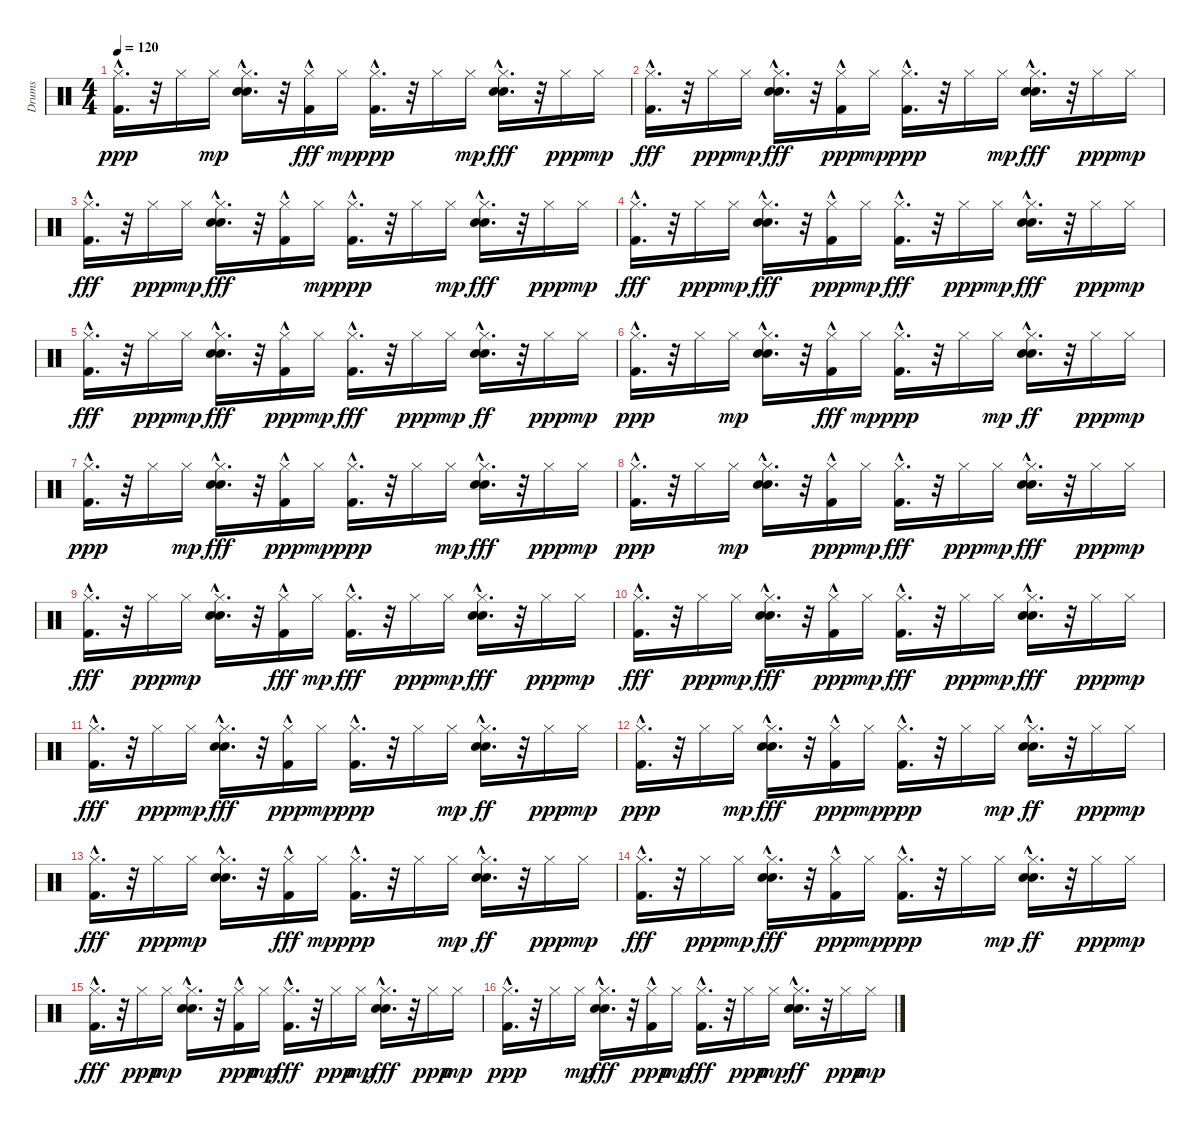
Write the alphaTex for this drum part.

\track ("Drums" "Drums") {instrument percussion}
\staff {score}
\articulation defaults
\ts (4 4)
\tempo 120
\clef neutral
\ks c
("Kick (hit) 2"{hac} "Hi-Hat (closed)"{hac}).16{d dy ppp} r.32 "Hi-Hat (closed)".16 "Hi-Hat (closed)".16{dy mp} ("Hand Clap (hit)"{hac} "Snare (hit) 2"{hac} "Hi-Hat (closed)"{hac}).16{d} r.32 ("Hi-Hat (closed)" "Kick (hit) 2"{hac}).16{dy fff} "Hi-Hat (closed)".16{dy mp} ("Kick (hit) 2"{hac} "Hi-Hat (closed)"{hac}).16{d dy ppp} r.32 "Hi-Hat (closed)".16 "Hi-Hat (closed)".16{dy mp} ("Hi-Hat (closed)"{hac} "Hand Clap (hit)"{hac} "Snare (hit) 2"{hac}).16{d dy fff} r.32 "Hi-Hat (closed)".16{dy ppp} "Hi-Hat (closed)".16{dy mp} |
("Hi-Hat (closed)"{hac} "Kick (hit) 2"{hac}).16{d dy fff} r.32 "Hi-Hat (closed)".16{dy ppp} "Hi-Hat (closed)".16{dy mp} ("Hi-Hat (closed)"{hac} "Snare (hit) 2"{hac} "Hand Clap (hit)"{hac}).16{d dy fff} r.32 ("Kick (hit) 2"{hac} "Hi-Hat (closed)").16{dy ppp} "Hi-Hat (closed)".16{dy mp} ("Kick (hit) 2"{hac} "Hi-Hat (closed)"{hac}).16{d dy ppp} r.32 "Hi-Hat (closed)".16 "Hi-Hat (closed)".16{dy mp} ("Snare (hit) 2"{hac} "Hi-Hat (closed)"{hac} "Hand Clap (hit)"{hac}).16{d dy fff} r.32 "Hi-Hat (closed)".16{dy ppp} "Hi-Hat (closed)".16{dy mp} |
("Hi-Hat (closed)"{hac} "Kick (hit) 2"{hac}).16{d dy fff} r.32 "Hi-Hat (closed)".16{dy ppp} "Hi-Hat (closed)".16{dy mp} ("Hand Clap (hit)"{hac} "Hi-Hat (closed)"{hac} "Snare (hit) 2"{hac}).16{d dy fff} r.32 ("Hi-Hat (closed)" "Kick (hit) 2"{hac}).16 "Hi-Hat (closed)".16{dy mp} ("Kick (hit) 2"{hac} "Hi-Hat (closed)"{hac}).16{d dy ppp} r.32 "Hi-Hat (closed)".16 "Hi-Hat (closed)".16{dy mp} ("Hi-Hat (closed)"{hac} "Hand Clap (hit)"{hac} "Snare (hit) 2"{hac}).16{d dy fff} r.32 "Hi-Hat (closed)".16{dy ppp} "Hi-Hat (closed)".16{dy mp} |
("Hi-Hat (closed)"{hac} "Kick (hit) 2"{hac}).16{d dy fff} r.32 "Hi-Hat (closed)".16{dy ppp} "Hi-Hat (closed)".16{dy mp} ("Hi-Hat (closed)"{hac} "Snare (hit) 2"{hac} "Hand Clap (hit)"{hac}).16{d dy fff} r.32 ("Kick (hit) 2"{hac} "Hi-Hat (closed)").16{dy ppp} "Hi-Hat (closed)".16{dy mp} ("Hi-Hat (closed)"{hac} "Kick (hit) 2"{hac}).16{d dy fff} r.32 "Hi-Hat (closed)".16{dy ppp} "Hi-Hat (closed)".16{dy mp} ("Hi-Hat (closed)"{hac} "Snare (hit) 2"{hac} "Hand Clap (hit)"{hac}).16{d dy fff} r.32 "Hi-Hat (closed)".16{dy ppp} "Hi-Hat (closed)".16{dy mp} |
("Hi-Hat (closed)"{hac} "Kick (hit) 2"{hac}).16{d dy fff} r.32 "Hi-Hat (closed)".16{dy ppp} "Hi-Hat (closed)".16{dy mp} ("Hand Clap (hit)"{hac} "Hi-Hat (closed)"{hac} "Snare (hit) 2"{hac}).16{d dy fff} r.32 ("Kick (hit) 2"{hac} "Hi-Hat (closed)").16{dy ppp} "Hi-Hat (closed)".16{dy mp} ("Hi-Hat (closed)"{hac} "Kick (hit) 2"{hac}).16{d dy fff} r.32 "Hi-Hat (closed)".16{dy ppp} "Hi-Hat (closed)".16{dy mp} ("Snare (hit) 2"{hac} "Hand Clap (hit)"{hac} "Hi-Hat (closed)"{hac}).16{d dy ff} r.32 "Hi-Hat (closed)".16{dy ppp} "Hi-Hat (closed)".16{dy mp} |
("Kick (hit) 2"{hac} "Hi-Hat (closed)"{hac}).16{d dy ppp} r.32 "Hi-Hat (closed)".16 "Hi-Hat (closed)".16{dy mp} ("Snare (hit) 2"{hac} "Hand Clap (hit)"{hac} "Hi-Hat (closed)"{hac}).16{d} r.32 ("Hi-Hat (closed)" "Kick (hit) 2"{hac}).16{dy fff} "Hi-Hat (closed)".16{dy mp} ("Kick (hit) 2"{hac} "Hi-Hat (closed)"{hac}).16{d dy ppp} r.32 "Hi-Hat (closed)".16 "Hi-Hat (closed)".16{dy mp} ("Snare (hit) 2"{hac} "Hand Clap (hit)"{hac} "Hi-Hat (closed)"{hac}).16{d dy ff} r.32 "Hi-Hat (closed)".16{dy ppp} "Hi-Hat (closed)".16{dy mp} |
("Kick (hit) 2"{hac} "Hi-Hat (closed)"{hac}).16{d dy ppp} r.32 "Hi-Hat (closed)".16 "Hi-Hat (closed)".16{dy mp} ("Hand Clap (hit)"{hac} "Hi-Hat (closed)"{hac} "Snare (hit) 2"{hac}).16{d dy fff} r.32 ("Kick (hit) 2"{hac} "Hi-Hat (closed)").16{dy ppp} "Hi-Hat (closed)".16{dy mp} ("Kick (hit) 2"{hac} "Hi-Hat (closed)"{hac}).16{d dy ppp} r.32 "Hi-Hat (closed)".16 "Hi-Hat (closed)".16{dy mp} ("Hi-Hat (closed)"{hac} "Hand Clap (hit)"{hac} "Snare (hit) 2"{hac}).16{d dy fff} r.32 "Hi-Hat (closed)".16{dy ppp} "Hi-Hat (closed)".16{dy mp} |
("Kick (hit) 2"{hac} "Hi-Hat (closed)"{hac}).16{d dy ppp} r.32 "Hi-Hat (closed)".16 "Hi-Hat (closed)".16{dy mp} ("Hand Clap (hit)"{hac} "Snare (hit) 2"{hac} "Hi-Hat (closed)"{hac}).16{d} r.32 ("Kick (hit) 2"{hac} "Hi-Hat (closed)").16{dy ppp} "Hi-Hat (closed)".16{dy mp} ("Hi-Hat (closed)"{hac} "Kick (hit) 2"{hac}).16{d dy fff} r.32 "Hi-Hat (closed)".16{dy ppp} "Hi-Hat (closed)".16{dy mp} ("Hand Clap (hit)"{hac} "Hi-Hat (closed)"{hac} "Snare (hit) 2"{hac}).16{d dy fff} r.32 "Hi-Hat (closed)".16{dy ppp} "Hi-Hat (closed)".16{dy mp} |
("Hi-Hat (closed)"{hac} "Kick (hit) 2"{hac}).16{d dy fff} r.32 "Hi-Hat (closed)".16{dy ppp} "Hi-Hat (closed)".16{dy mp} ("Hand Clap (hit)"{hac} "Snare (hit) 2"{hac} "Hi-Hat (closed)"{hac}).16{d} r.32 ("Hi-Hat (closed)" "Kick (hit) 2"{hac}).16{dy fff} "Hi-Hat (closed)".16{dy mp} ("Hi-Hat (closed)"{hac} "Kick (hit) 2"{hac}).16{d dy fff} r.32 "Hi-Hat (closed)".16{dy ppp} "Hi-Hat (closed)".16{dy mp} ("Snare (hit) 2"{hac} "Hi-Hat (closed)"{hac} "Hand Clap (hit)"{hac}).16{d dy fff} r.32 "Hi-Hat (closed)".16{dy ppp} "Hi-Hat (closed)".16{dy mp} |
("Hi-Hat (closed)"{hac} "Kick (hit) 2"{hac}).16{d dy fff} r.32 "Hi-Hat (closed)".16{dy ppp} "Hi-Hat (closed)".16{dy mp} ("Snare (hit) 2"{hac} "Hi-Hat (closed)"{hac} "Hand Clap (hit)"{hac}).16{d dy fff} r.32 ("Kick (hit) 2"{hac} "Hi-Hat (closed)").16{dy ppp} "Hi-Hat (closed)".16{dy mp} ("Hi-Hat (closed)"{hac} "Kick (hit) 2"{hac}).16{d dy fff} r.32 "Hi-Hat (closed)".16{dy ppp} "Hi-Hat (closed)".16{dy mp} ("Hi-Hat (closed)"{hac} "Hand Clap (hit)"{hac} "Snare (hit) 2"{hac}).16{d dy fff} r.32 "Hi-Hat (closed)".16{dy ppp} "Hi-Hat (closed)".16{dy mp} |
("Hi-Hat (closed)"{hac} "Kick (hit) 2"{hac}).16{d dy fff} r.32 "Hi-Hat (closed)".16{dy ppp} "Hi-Hat (closed)".16{dy mp} ("Snare (hit) 2"{hac} "Hi-Hat (closed)"{hac} "Hand Clap (hit)"{hac}).16{d dy fff} r.32 ("Kick (hit) 2"{hac} "Hi-Hat (closed)").16{dy ppp} "Hi-Hat (closed)".16{dy mp} ("Kick (hit) 2"{hac} "Hi-Hat (closed)"{hac}).16{d dy ppp} r.32 "Hi-Hat (closed)".16 "Hi-Hat (closed)".16{dy mp} ("Hand Clap (hit)"{hac} "Snare (hit) 2"{hac} "Hi-Hat (closed)"{hac}).16{d dy ff} r.32 "Hi-Hat (closed)".16{dy ppp} "Hi-Hat (closed)".16{dy mp} |
("Kick (hit) 2"{hac} "Hi-Hat (closed)"{hac}).16{d dy ppp} r.32 "Hi-Hat (closed)".16 "Hi-Hat (closed)".16{dy mp} ("Hi-Hat (closed)"{hac} "Hand Clap (hit)"{hac} "Snare (hit) 2"{hac}).16{d dy fff} r.32 ("Kick (hit) 2"{hac} "Hi-Hat (closed)").16{dy ppp} "Hi-Hat (closed)".16{dy mp} ("Kick (hit) 2"{hac} "Hi-Hat (closed)"{hac}).16{d dy ppp} r.32 "Hi-Hat (closed)".16 "Hi-Hat (closed)".16{dy mp} ("Hand Clap (hit)"{hac} "Snare (hit) 2"{hac} "Hi-Hat (closed)"{hac}).16{d dy ff} r.32 "Hi-Hat (closed)".16{dy ppp} "Hi-Hat (closed)".16{dy mp} |
("Hi-Hat (closed)"{hac} "Kick (hit) 2"{hac}).16{d dy fff} r.32 "Hi-Hat (closed)".16{dy ppp} "Hi-Hat (closed)".16{dy mp} ("Hand Clap (hit)"{hac} "Snare (hit) 2"{hac} "Hi-Hat (closed)"{hac}).16{d} r.32 ("Hi-Hat (closed)" "Kick (hit) 2"{hac}).16{dy fff} "Hi-Hat (closed)".16{dy mp} ("Kick (hit) 2"{hac} "Hi-Hat (closed)"{hac}).16{d dy ppp} r.32 "Hi-Hat (closed)".16 "Hi-Hat (closed)".16{dy mp} ("Hand Clap (hit)"{hac} "Snare (hit) 2"{hac} "Hi-Hat (closed)"{hac}).16{d dy ff} r.32 "Hi-Hat (closed)".16{dy ppp} "Hi-Hat (closed)".16{dy mp} |
("Hi-Hat (closed)"{hac} "Kick (hit) 2"{hac}).16{d dy fff} r.32 "Hi-Hat (closed)".16{dy ppp} "Hi-Hat (closed)".16{dy mp} ("Snare (hit) 2"{hac} "Hi-Hat (closed)"{hac} "Hand Clap (hit)"{hac}).16{d dy fff} r.32 ("Kick (hit) 2"{hac} "Hi-Hat (closed)").16{dy ppp} "Hi-Hat (closed)".16{dy mp} ("Kick (hit) 2"{hac} "Hi-Hat (closed)"{hac}).16{d dy ppp} r.32 "Hi-Hat (closed)".16 "Hi-Hat (closed)".16{dy mp} ("Snare (hit) 2"{hac} "Hand Clap (hit)"{hac} "Hi-Hat (closed)"{hac}).16{d dy ff} r.32 "Hi-Hat (closed)".16{dy ppp} "Hi-Hat (closed)".16{dy mp} |
("Hi-Hat (closed)"{hac} "Kick (hit) 2"{hac}).16{d dy fff} r.32 "Hi-Hat (closed)".16{dy ppp} "Hi-Hat (closed)".16{dy mp} ("Hand Clap (hit)"{hac} "Snare (hit) 2"{hac} "Hi-Hat (closed)"{hac}).16{d} r.32 ("Kick (hit) 2"{hac} "Hi-Hat (closed)").16{dy ppp} "Hi-Hat (closed)".16{dy mp} ("Hi-Hat (closed)"{hac} "Kick (hit) 2"{hac}).16{d dy fff} r.32 "Hi-Hat (closed)".16{dy ppp} "Hi-Hat (closed)".16{dy mp} ("Hi-Hat (closed)"{hac} "Hand Clap (hit)"{hac} "Snare (hit) 2"{hac}).16{d dy fff} r.32 "Hi-Hat (closed)".16{dy ppp} "Hi-Hat (closed)".16{dy mp} |
("Kick (hit) 2"{hac} "Hi-Hat (closed)"{hac}).16{d dy ppp} r.32 "Hi-Hat (closed)".16 "Hi-Hat (closed)".16{dy mp} ("Hi-Hat (closed)"{hac} "Snare (hit) 2"{hac} "Hand Clap (hit)"{hac}).16{d dy fff} r.32 ("Kick (hit) 2"{hac} "Hi-Hat (closed)").16{dy ppp} "Hi-Hat (closed)".16{dy mp} ("Hi-Hat (closed)"{hac} "Kick (hit) 2"{hac}).16{d dy fff} r.32 "Hi-Hat (closed)".16{dy ppp} "Hi-Hat (closed)".16{dy mp} ("Hand Clap (hit)"{hac} "Snare (hit) 2"{hac} "Hi-Hat (closed)"{hac}).16{d dy ff} r.32 "Hi-Hat (closed)".16{dy ppp} "Hi-Hat (closed)".16{dy mp}
